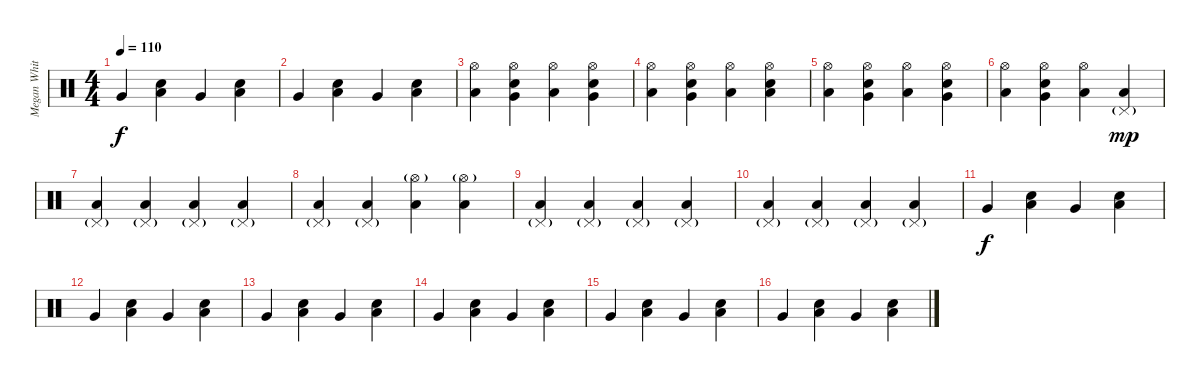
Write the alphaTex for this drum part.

\track ("Megan White (drums)" "Megan Whit") {instrument percussion}
\staff {score}
\articulation defaults
\ts (4 4)
\tempo 110
\clef neutral
\ks c "Very Low Tom (hit)".4{dy f}
("Electric Snare (hit)" "Low Floor Tom (hit)").4 "Very Low Tom (hit)".4 ("Electric Snare (hit)" "Low Floor Tom (hit)").4 |
"Very Low Tom (hit)".4 ("Electric Snare (hit)" "Low Floor Tom (hit)").4 "Very Low Tom (hit)".4 ("Electric Snare (hit)" "Low Floor Tom (hit)").4 |
("Hi-Hat (open)" "Low Floor Tom (hit)").4 ("Hi-Hat (open)" "Electric Snare (hit)" "Very Low Tom (hit)").4 ("Hi-Hat (open)" "Low Floor Tom (hit)").4 ("Hi-Hat (open)" "Electric Snare (hit)" "Very Low Tom (hit)").4 |
("Hi-Hat (open)" "Low Floor Tom (hit)").4 ("Hi-Hat (open)" "Electric Snare (hit)" "Very Low Tom (hit)").4 ("Hi-Hat (open)" "Low Floor Tom (hit)").4 ("Hi-Hat (open)" "Electric Snare (hit)" "Low Floor Tom (hit)").4 |
("Hi-Hat (open)" "Low Floor Tom (hit)").4 ("Hi-Hat (open)" "Electric Snare (hit)" "Very Low Tom (hit)").4 ("Hi-Hat (open)" "Low Floor Tom (hit)").4 ("Hi-Hat (open)" "Electric Snare (hit)" "Very Low Tom (hit)").4 |
("Hi-Hat (open)" "Low Floor Tom (hit)").4 ("Hi-Hat (open)" "Electric Snare (hit)" "Very Low Tom (hit)").4 ("Hi-Hat (open)" "Low Floor Tom (hit)").4 ("Pedal Hi-Hat (hit)"{g} "Low Floor Tom (hit)").4{dy mp} |
("Pedal Hi-Hat (hit)"{g} "Low Floor Tom (hit)").4 ("Pedal Hi-Hat (hit)"{g} "Low Floor Tom (hit)").4 ("Pedal Hi-Hat (hit)"{g} "Low Floor Tom (hit)").4 ("Pedal Hi-Hat (hit)"{g} "Low Floor Tom (hit)").4 |
("Pedal Hi-Hat (hit)"{g} "Low Floor Tom (hit)").4 ("Pedal Hi-Hat (hit)"{g} "Low Floor Tom (hit)").4 ("Hi-Hat (open)"{g} "Low Floor Tom (hit)").4 ("Hi-Hat (open)"{g} "Low Floor Tom (hit)").4 |
("Pedal Hi-Hat (hit)"{g} "Low Floor Tom (hit)").4 ("Pedal Hi-Hat (hit)"{g} "Low Floor Tom (hit)").4 ("Pedal Hi-Hat (hit)"{g} "Low Floor Tom (hit)").4 ("Pedal Hi-Hat (hit)"{g} "Low Floor Tom (hit)").4 |
("Pedal Hi-Hat (hit)"{g} "Low Floor Tom (hit)").4 ("Pedal Hi-Hat (hit)"{g} "Low Floor Tom (hit)").4 ("Pedal Hi-Hat (hit)"{g} "Low Floor Tom (hit)").4 ("Pedal Hi-Hat (hit)"{g} "Low Floor Tom (hit)").4 |
"Very Low Tom (hit)".4{dy f} ("Electric Snare (hit)" "Low Floor Tom (hit)").4 "Very Low Tom (hit)".4 ("Electric Snare (hit)" "Low Floor Tom (hit)").4 |
"Very Low Tom (hit)".4 ("Electric Snare (hit)" "Low Floor Tom (hit)").4 "Very Low Tom (hit)".4 ("Electric Snare (hit)" "Low Floor Tom (hit)").4 |
"Very Low Tom (hit)".4 ("Electric Snare (hit)" "Low Floor Tom (hit)").4 "Very Low Tom (hit)".4 ("Electric Snare (hit)" "Low Floor Tom (hit)").4 |
"Very Low Tom (hit)".4 ("Electric Snare (hit)" "Low Floor Tom (hit)").4 "Very Low Tom (hit)".4 ("Electric Snare (hit)" "Low Floor Tom (hit)").4 |
"Very Low Tom (hit)".4 ("Electric Snare (hit)" "Low Floor Tom (hit)").4 "Very Low Tom (hit)".4 ("Electric Snare (hit)" "Low Floor Tom (hit)").4 |
"Very Low Tom (hit)".4 ("Electric Snare (hit)" "Low Floor Tom (hit)").4 "Very Low Tom (hit)".4 ("Electric Snare (hit)" "Low Floor Tom (hit)").4
